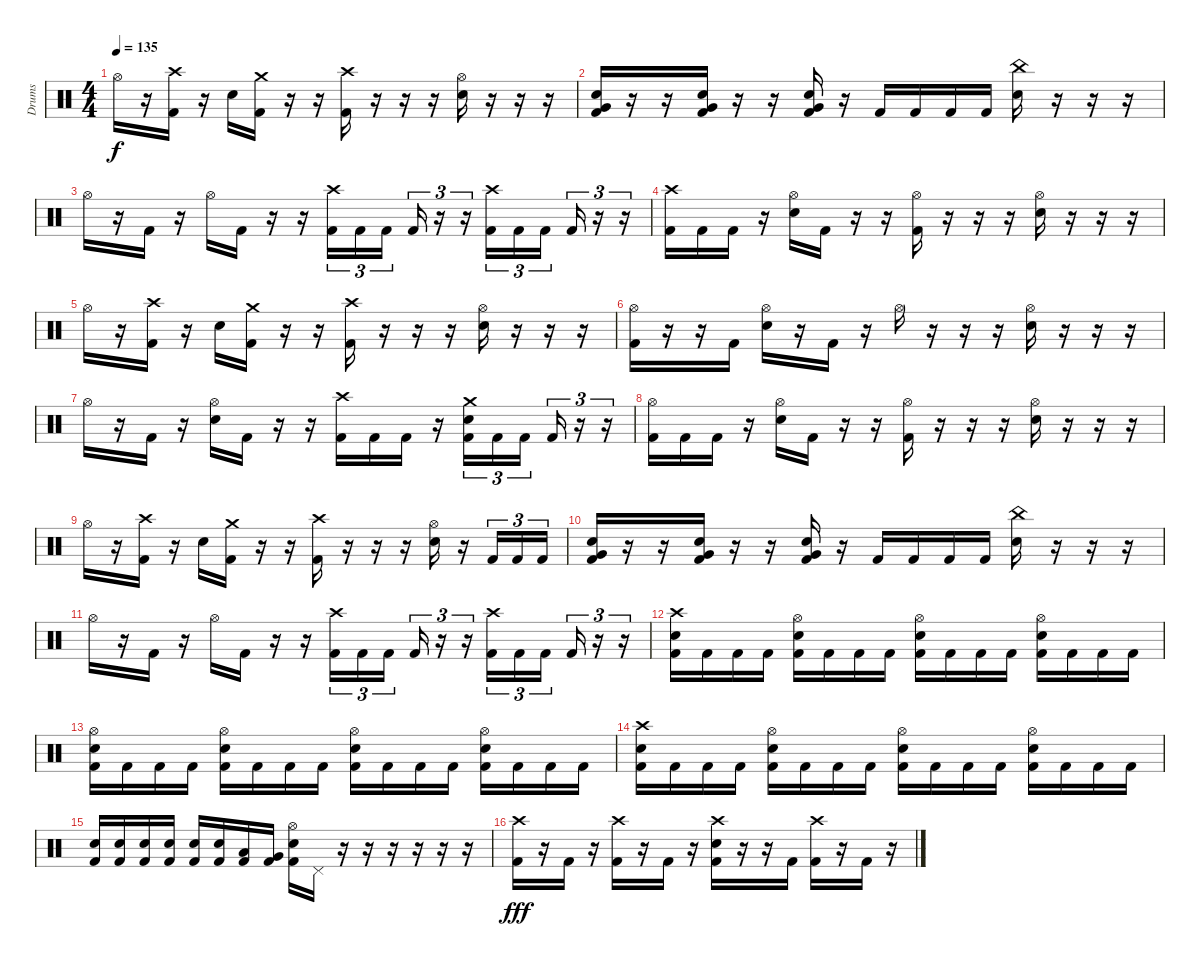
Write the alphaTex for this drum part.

\track ("Drums" "Drums") {instrument percussion}
\staff {score}
\articulation defaults
\ts (4 4)
\tempo 135
\clef neutral
\ks c "Hi-Hat (open)".16{dy f}
r.16 ("Crash high (hit)" "Kick (hit) 2").16 r.16 "Electric Snare (hit)".16 ("Crash medium (hit)" "Kick (hit) 2").16 r.16 r.16 ("Crash high (hit)" "Kick (hit) 2").16 r.16 r.16 r.16 ("Hi-Hat (open)" "Electric Snare (hit)").16 r.16 r.16 r.16 |
("Very Low Tom (hit)" "Electric Snare (hit)" "Kick (hit) 2").16 r.16 r.16 ("Very Low Tom (hit)" "Electric Snare (hit)" "Kick (hit) 2").16 r.16 r.16 ("Very Low Tom (hit)" "Electric Snare (hit)" "Kick (hit) 2").16 r.16 "Kick (hit) 2".16 "Kick (hit) 2".16 "Kick (hit) 2".16 "Kick (hit) 2".16 ("China (hit)" "Electric Snare (hit)").16 r.16 r.16 r.16 |
"Hi-Hat (open)".16 r.16 "Kick (hit) 2".16 r.16 "Hi-Hat (open)".16 "Kick (hit) 2".16 r.16 r.16 ("Crash high (hit)" "Kick (hit) 2").16{tu (3 2)} "Kick (hit) 2".16{tu (3 2)} "Kick (hit) 2".16{tu (3 2) beam splitsecondary} "Kick (hit) 2".16{tu (3 2)} r.16{tu (3 2)} r.16{tu (3 2)} ("Crash high (hit)" "Kick (hit) 2").16{tu (3 2)} "Kick (hit) 2".16{tu (3 2)} "Kick (hit) 2".16{tu (3 2) beam splitsecondary} "Kick (hit) 2".16{tu (3 2)} r.16{tu (3 2)} r.16{tu (3 2)} |
("Crash high (hit)" "Kick (hit) 2").16 "Kick (hit) 2".16 "Kick (hit) 2".16 r.16 ("Hi-Hat (open)" "Electric Snare (hit)").16 "Kick (hit) 2".16 r.16 r.16 ("Hi-Hat (open)" "Kick (hit) 2").16 r.16 r.16 r.16 ("Hi-Hat (open)" "Electric Snare (hit)").16 r.16 r.16 r.16 |
"Hi-Hat (open)".16 r.16 ("Crash high (hit)" "Kick (hit) 2").16 r.16 "Electric Snare (hit)".16 ("Crash medium (hit)" "Kick (hit) 2").16 r.16 r.16 ("Crash high (hit)" "Kick (hit) 2").16 r.16 r.16 r.16 ("Hi-Hat (open)" "Electric Snare (hit)").16 r.16 r.16 r.16 |
("Hi-Hat (open)" "Kick (hit) 2").16 r.16 r.16 "Kick (hit) 2".16 ("Hi-Hat (open)" "Electric Snare (hit)").16 r.16 "Kick (hit) 2".16 r.16 "Hi-Hat (open)".16 r.16 r.16 r.16 ("Hi-Hat (open)" "Electric Snare (hit)").16 r.16 r.16 r.16 |
"Hi-Hat (open)".16 r.16 "Kick (hit) 2".16 r.16 ("Hi-Hat (open)" "Electric Snare (hit)").16 "Kick (hit) 2".16 r.16 r.16 ("Crash high (hit)" "Kick (hit) 2").16 "Kick (hit) 2".16 "Kick (hit) 2".16 r.16 ("Crash medium (hit)" "Electric Snare (hit)" "Kick (hit) 2").16{tu (3 2)} "Kick (hit) 2".16{tu (3 2)} "Kick (hit) 2".16{tu (3 2) beam splitsecondary} "Kick (hit) 2".16{tu (3 2)} r.16{tu (3 2)} r.16{tu (3 2)} |
("Hi-Hat (open)" "Kick (hit) 2").16 "Kick (hit) 2".16 "Kick (hit) 2".16 r.16 ("Hi-Hat (open)" "Electric Snare (hit)").16 "Kick (hit) 2".16 r.16 r.16 ("Hi-Hat (open)" "Kick (hit) 2").16 r.16 r.16 r.16 ("Hi-Hat (open)" "Electric Snare (hit)").16 r.16 r.16 r.16 |
"Hi-Hat (open)".16 r.16 ("Crash high (hit)" "Kick (hit) 2").16 r.16 "Electric Snare (hit)".16 ("Crash medium (hit)" "Kick (hit) 2").16 r.16 r.16 ("Crash high (hit)" "Kick (hit) 2").16 r.16 r.16 r.16 ("Hi-Hat (open)" "Electric Snare (hit)").16 r.16 "Kick (hit) 2".16{tu (3 2)} "Kick (hit) 2".16{tu (3 2)} "Kick (hit) 2".16{tu (3 2)} |
("Very Low Tom (hit)" "Electric Snare (hit)" "Kick (hit) 2").16 r.16 r.16 ("Very Low Tom (hit)" "Electric Snare (hit)" "Kick (hit) 2").16 r.16 r.16 ("Very Low Tom (hit)" "Electric Snare (hit)" "Kick (hit) 2").16 r.16 "Kick (hit) 2".16 "Kick (hit) 2".16 "Kick (hit) 2".16 "Kick (hit) 2".16 ("China (hit)" "Electric Snare (hit)").16 r.16 r.16 r.16 |
"Hi-Hat (open)".16 r.16 "Kick (hit) 2".16 r.16 "Hi-Hat (open)".16 "Kick (hit) 2".16 r.16 r.16 ("Crash high (hit)" "Kick (hit) 2").16{tu (3 2)} "Kick (hit) 2".16{tu (3 2)} "Kick (hit) 2".16{tu (3 2) beam splitsecondary} "Kick (hit) 2".16{tu (3 2)} r.16{tu (3 2)} r.16{tu (3 2)} ("Crash high (hit)" "Kick (hit) 2").16{tu (3 2)} "Kick (hit) 2".16{tu (3 2)} "Kick (hit) 2".16{tu (3 2) beam splitsecondary} "Kick (hit) 2".16{tu (3 2)} r.16{tu (3 2)} r.16{tu (3 2)} |
("Crash high (hit)" "Electric Snare (hit)" "Kick (hit) 2").16 "Kick (hit) 2".16 "Kick (hit) 2".16 "Kick (hit) 2".16 ("Hi-Hat (open)" "Electric Snare (hit)" "Kick (hit) 2").16 "Kick (hit) 2".16 "Kick (hit) 2".16 "Kick (hit) 2".16 ("Hi-Hat (open)" "Electric Snare (hit)" "Kick (hit) 2").16 "Kick (hit) 2".16 "Kick (hit) 2".16 "Kick (hit) 2".16 ("Hi-Hat (open)" "Electric Snare (hit)" "Kick (hit) 2").16 "Kick (hit) 2".16 "Kick (hit) 2".16 "Kick (hit) 2".16 |
("Hi-Hat (open)" "Electric Snare (hit)" "Kick (hit) 2").16 "Kick (hit) 2".16 "Kick (hit) 2".16 "Kick (hit) 2".16 ("Hi-Hat (open)" "Electric Snare (hit)" "Kick (hit) 2").16 "Kick (hit) 2".16 "Kick (hit) 2".16 "Kick (hit) 2".16 ("Hi-Hat (open)" "Electric Snare (hit)" "Kick (hit) 2").16 "Kick (hit) 2".16 "Kick (hit) 2".16 "Kick (hit) 2".16 ("Hi-Hat (open)" "Electric Snare (hit)" "Kick (hit) 2").16 "Kick (hit) 2".16 "Kick (hit) 2".16 "Kick (hit) 2".16 |
("Crash high (hit)" "Electric Snare (hit)" "Kick (hit) 2").16 "Kick (hit) 2".16 "Kick (hit) 2".16 "Kick (hit) 2".16 ("Hi-Hat (open)" "Electric Snare (hit)" "Kick (hit) 2").16 "Kick (hit) 2".16 "Kick (hit) 2".16 "Kick (hit) 2".16 ("Hi-Hat (open)" "Electric Snare (hit)" "Kick (hit) 2").16 "Kick (hit) 2".16 "Kick (hit) 2".16 "Kick (hit) 2".16 ("Hi-Hat (open)" "Electric Snare (hit)" "Kick (hit) 2").16 "Kick (hit) 2".16 "Kick (hit) 2".16 "Kick (hit) 2".16 |
("Electric Snare (hit)" "Kick (hit) 2").16 ("Electric Snare (hit)" "Kick (hit) 2").16 ("Electric Snare (hit)" "Kick (hit) 2").16 ("Electric Snare (hit)" "Kick (hit) 2").16 ("Electric Snare (hit)" "Kick (hit) 2").16 ("Electric Snare (hit)" "Kick (hit) 2").16 ("Low Tom (hit)" "Kick (hit) 2").16 ("Very Low Tom (hit)" "Kick (hit) 2").16 ("Hi-Hat (open)" "Electric Snare (hit)" "Kick (hit) 2").16 "Pedal Hi-Hat (hit)".16 r.16 r.16 r.16 r.16 r.16 r.16 |
("Crash high (hit)" "Kick (hit) 2").16{dy fff} r.16 "Kick (hit) 2".16 r.16 ("Crash high (hit)" "Kick (hit) 2").16 r.16 "Kick (hit) 2".16 r.16 ("Crash high (hit)" "Electric Snare (hit)" "Kick (hit) 2").16 r.16 r.16 "Kick (hit) 2".16 ("Crash high (hit)" "Kick (hit) 2").16 r.16 "Kick (hit) 2".16 r.16
